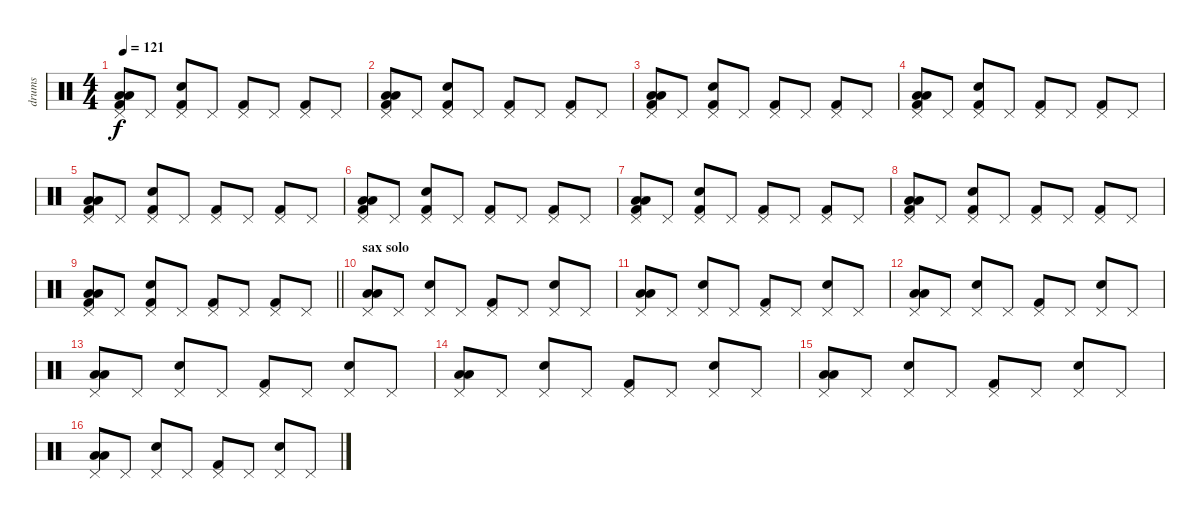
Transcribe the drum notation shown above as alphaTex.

\track ("drums" "drums") {instrument percussion}
\staff {score}
\articulation defaults
\ts (4 4)
\tempo 121
\clef neutral
\ks c
("Low Floor Tom (hit)" "Low Floor Tom (hit)" "Kick (hit) 2" "Pedal Hi-Hat (hit)").8{dy f} "Pedal Hi-Hat (hit)".8 ("Hand Clap (hit)" "Kick (hit) 2" "Pedal Hi-Hat (hit)").8 "Pedal Hi-Hat (hit)".8 ("Kick (hit) 2" "Pedal Hi-Hat (hit)").8 "Pedal Hi-Hat (hit)".8 ("Kick (hit) 2" "Pedal Hi-Hat (hit)").8 "Pedal Hi-Hat (hit)".8 |
("Low Floor Tom (hit)" "Low Floor Tom (hit)" "Kick (hit) 2" "Pedal Hi-Hat (hit)").8 "Pedal Hi-Hat (hit)".8 ("Hand Clap (hit)" "Kick (hit) 2" "Pedal Hi-Hat (hit)").8 "Pedal Hi-Hat (hit)".8 ("Kick (hit) 2" "Pedal Hi-Hat (hit)").8 "Pedal Hi-Hat (hit)".8 ("Kick (hit) 2" "Pedal Hi-Hat (hit)").8 "Pedal Hi-Hat (hit)".8 |
("Low Floor Tom (hit)" "Low Floor Tom (hit)" "Kick (hit) 2" "Pedal Hi-Hat (hit)").8 "Pedal Hi-Hat (hit)".8 ("Hand Clap (hit)" "Kick (hit) 2" "Pedal Hi-Hat (hit)").8 "Pedal Hi-Hat (hit)".8 ("Kick (hit) 2" "Pedal Hi-Hat (hit)").8 "Pedal Hi-Hat (hit)".8 ("Kick (hit) 2" "Pedal Hi-Hat (hit)").8 "Pedal Hi-Hat (hit)".8 |
("Low Floor Tom (hit)" "Low Floor Tom (hit)" "Kick (hit) 2" "Pedal Hi-Hat (hit)").8 "Pedal Hi-Hat (hit)".8 ("Hand Clap (hit)" "Kick (hit) 2" "Pedal Hi-Hat (hit)").8 "Pedal Hi-Hat (hit)".8 ("Kick (hit) 2" "Pedal Hi-Hat (hit)").8 "Pedal Hi-Hat (hit)".8 ("Kick (hit) 2" "Pedal Hi-Hat (hit)").8 "Pedal Hi-Hat (hit)".8 |
("Low Floor Tom (hit)" "Low Floor Tom (hit)" "Kick (hit) 2" "Pedal Hi-Hat (hit)").8 "Pedal Hi-Hat (hit)".8 ("Hand Clap (hit)" "Kick (hit) 2" "Pedal Hi-Hat (hit)").8 "Pedal Hi-Hat (hit)".8 ("Kick (hit) 2" "Pedal Hi-Hat (hit)").8 "Pedal Hi-Hat (hit)".8 ("Kick (hit) 2" "Pedal Hi-Hat (hit)").8 "Pedal Hi-Hat (hit)".8 |
("Low Floor Tom (hit)" "Low Floor Tom (hit)" "Kick (hit) 2" "Pedal Hi-Hat (hit)").8 "Pedal Hi-Hat (hit)".8 ("Hand Clap (hit)" "Kick (hit) 2" "Pedal Hi-Hat (hit)").8 "Pedal Hi-Hat (hit)".8 ("Kick (hit) 2" "Pedal Hi-Hat (hit)").8 "Pedal Hi-Hat (hit)".8 ("Kick (hit) 2" "Pedal Hi-Hat (hit)").8 "Pedal Hi-Hat (hit)".8 |
("Low Floor Tom (hit)" "Low Floor Tom (hit)" "Kick (hit) 2" "Pedal Hi-Hat (hit)").8 "Pedal Hi-Hat (hit)".8 ("Hand Clap (hit)" "Kick (hit) 2" "Pedal Hi-Hat (hit)").8 "Pedal Hi-Hat (hit)".8 ("Kick (hit) 2" "Pedal Hi-Hat (hit)").8 "Pedal Hi-Hat (hit)".8 ("Kick (hit) 2" "Pedal Hi-Hat (hit)").8 "Pedal Hi-Hat (hit)".8 |
("Low Floor Tom (hit)" "Low Floor Tom (hit)" "Kick (hit) 2" "Pedal Hi-Hat (hit)").8 "Pedal Hi-Hat (hit)".8 ("Hand Clap (hit)" "Kick (hit) 2" "Pedal Hi-Hat (hit)").8 "Pedal Hi-Hat (hit)".8 ("Kick (hit) 2" "Pedal Hi-Hat (hit)").8 "Pedal Hi-Hat (hit)".8 ("Kick (hit) 2" "Pedal Hi-Hat (hit)").8 "Pedal Hi-Hat (hit)".8 |
\barLineRight lightlight
("Low Floor Tom (hit)" "Low Floor Tom (hit)" "Kick (hit) 2" "Pedal Hi-Hat (hit)").8 "Pedal Hi-Hat (hit)".8 ("Hand Clap (hit)" "Kick (hit) 2" "Pedal Hi-Hat (hit)").8 "Pedal Hi-Hat (hit)".8 ("Kick (hit) 2" "Pedal Hi-Hat (hit)").8 "Pedal Hi-Hat (hit)".8 ("Kick (hit) 2" "Pedal Hi-Hat (hit)").8 "Pedal Hi-Hat (hit)".8 |
\section ("" "sax solo")
("Low Floor Tom (hit)" "Low Floor Tom (hit)" "Pedal Hi-Hat (hit)").8 "Pedal Hi-Hat (hit)".8 ("Hand Clap (hit)" "Pedal Hi-Hat (hit)").8 "Pedal Hi-Hat (hit)".8 ("Kick (hit) 2" "Pedal Hi-Hat (hit)").8 "Pedal Hi-Hat (hit)".8 ("Snare (hit) 2" "Pedal Hi-Hat (hit)").8 "Pedal Hi-Hat (hit)".8 |
("Low Floor Tom (hit)" "Low Floor Tom (hit)" "Pedal Hi-Hat (hit)").8 "Pedal Hi-Hat (hit)".8 ("Hand Clap (hit)" "Pedal Hi-Hat (hit)").8 "Pedal Hi-Hat (hit)".8 ("Kick (hit) 2" "Pedal Hi-Hat (hit)").8 "Pedal Hi-Hat (hit)".8 ("Snare (hit) 2" "Pedal Hi-Hat (hit)").8 "Pedal Hi-Hat (hit)".8 |
("Low Floor Tom (hit)" "Low Floor Tom (hit)" "Pedal Hi-Hat (hit)").8 "Pedal Hi-Hat (hit)".8 ("Hand Clap (hit)" "Pedal Hi-Hat (hit)").8 "Pedal Hi-Hat (hit)".8 ("Kick (hit) 2" "Pedal Hi-Hat (hit)").8 "Pedal Hi-Hat (hit)".8 ("Snare (hit) 2" "Pedal Hi-Hat (hit)").8 "Pedal Hi-Hat (hit)".8 |
("Low Floor Tom (hit)" "Low Floor Tom (hit)" "Pedal Hi-Hat (hit)").8 "Pedal Hi-Hat (hit)".8 ("Hand Clap (hit)" "Pedal Hi-Hat (hit)").8 "Pedal Hi-Hat (hit)".8 ("Kick (hit) 2" "Pedal Hi-Hat (hit)").8 "Pedal Hi-Hat (hit)".8 ("Snare (hit) 2" "Pedal Hi-Hat (hit)").8 "Pedal Hi-Hat (hit)".8 |
("Low Floor Tom (hit)" "Low Floor Tom (hit)" "Pedal Hi-Hat (hit)").8 "Pedal Hi-Hat (hit)".8 ("Hand Clap (hit)" "Pedal Hi-Hat (hit)").8 "Pedal Hi-Hat (hit)".8 ("Kick (hit) 2" "Pedal Hi-Hat (hit)").8 "Pedal Hi-Hat (hit)".8 ("Snare (hit) 2" "Pedal Hi-Hat (hit)").8 "Pedal Hi-Hat (hit)".8 |
("Low Floor Tom (hit)" "Low Floor Tom (hit)" "Pedal Hi-Hat (hit)").8 "Pedal Hi-Hat (hit)".8 ("Hand Clap (hit)" "Pedal Hi-Hat (hit)").8 "Pedal Hi-Hat (hit)".8 ("Kick (hit) 2" "Pedal Hi-Hat (hit)").8 "Pedal Hi-Hat (hit)".8 ("Snare (hit) 2" "Pedal Hi-Hat (hit)").8 "Pedal Hi-Hat (hit)".8 |
("Low Floor Tom (hit)" "Low Floor Tom (hit)" "Pedal Hi-Hat (hit)").8 "Pedal Hi-Hat (hit)".8 ("Hand Clap (hit)" "Pedal Hi-Hat (hit)").8 "Pedal Hi-Hat (hit)".8 ("Kick (hit) 2" "Pedal Hi-Hat (hit)").8 "Pedal Hi-Hat (hit)".8 ("Snare (hit) 2" "Pedal Hi-Hat (hit)").8 "Pedal Hi-Hat (hit)".8
